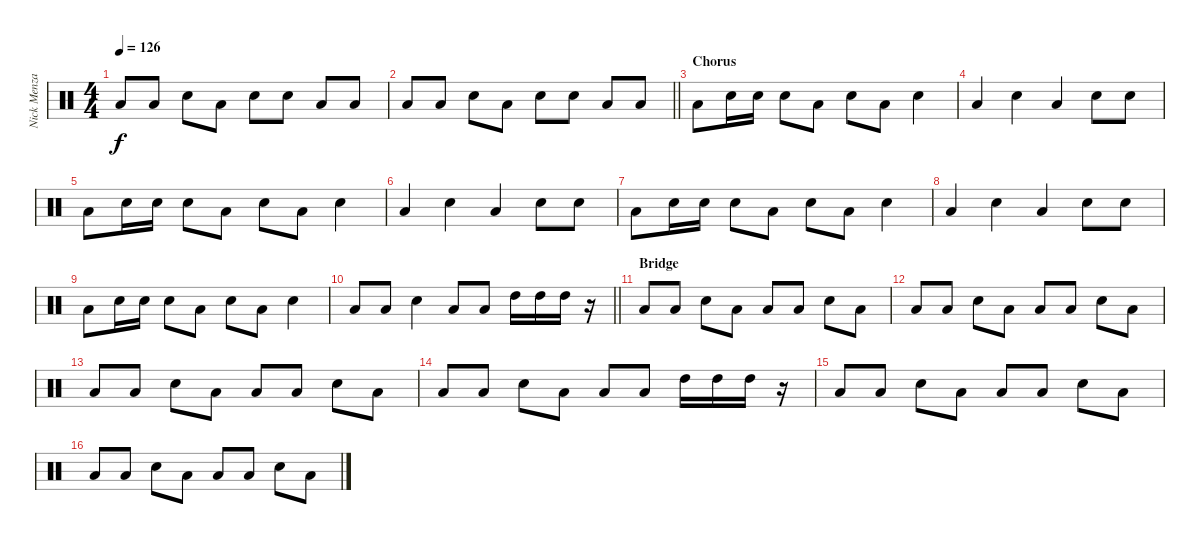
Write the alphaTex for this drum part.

\track ("Nick Menza" "Nick Menza") {instrument percussion}
\staff {score}
\articulation defaults
\ts (4 4)
\tempo 126
\clef neutral
\ks c "Low Tom (hit)".8{dy f} "Low Tom (hit)".8 "Electric Snare (hit)".8 "Low Tom (hit)".8 "Electric Snare (hit)".8 "Electric Snare (hit)".8 "Low Tom (hit)".8 "Low Tom (hit)".8
|
\barLineRight lightlight "Low Tom (hit)".8 "Low Tom (hit)".8 "Electric Snare (hit)".8 "Low Tom (hit)".8 "Electric Snare (hit)".8 "Electric Snare (hit)".8 "Low Tom (hit)".8 "Low Tom (hit)".8
|
\section ("" "Chorus")
"Low Tom (hit)".8 "Electric Snare (hit)".16 "Electric Snare (hit)".16 "Electric Snare (hit)".8 "Low Tom (hit)".8 "Electric Snare (hit)".8 "Low Tom (hit)".8 "Electric Snare (hit)".4 |
"Low Tom (hit)".4 "Electric Snare (hit)".4 "Low Tom (hit)".4 "Electric Snare (hit)".8 "Electric Snare (hit)".8 |
"Low Tom (hit)".8 "Electric Snare (hit)".16 "Electric Snare (hit)".16 "Electric Snare (hit)".8 "Low Tom (hit)".8 "Electric Snare (hit)".8 "Low Tom (hit)".8 "Electric Snare (hit)".4 |
"Low Tom (hit)".4 "Electric Snare (hit)".4 "Low Tom (hit)".4 "Electric Snare (hit)".8 "Electric Snare (hit)".8 |
"Low Tom (hit)".8 "Electric Snare (hit)".16 "Electric Snare (hit)".16 "Electric Snare (hit)".8 "Low Tom (hit)".8 "Electric Snare (hit)".8 "Low Tom (hit)".8 "Electric Snare (hit)".4 |
"Low Tom (hit)".4 "Electric Snare (hit)".4 "Low Tom (hit)".4 "Electric Snare (hit)".8 "Electric Snare (hit)".8 |
"Low Tom (hit)".8 "Electric Snare (hit)".16 "Electric Snare (hit)".16 "Electric Snare (hit)".8 "Low Tom (hit)".8 "Electric Snare (hit)".8 "Low Tom (hit)".8 "Electric Snare (hit)".4 |
\barLineRight lightlight "Low Tom (hit)".8 "Low Tom (hit)".8 "Electric Snare (hit)".4 "Low Tom (hit)".8 "Low Tom (hit)".8 "High Tom (hit)".16 "High Tom (hit)".16 "High Tom (hit)".16
r.16 |
\section ("" "Bridge")
"Low Tom (hit)".8 "Low Tom (hit)".8 "Electric Snare (hit)".8 "Low Tom (hit)".8 "Low Tom (hit)".8 "Low Tom (hit)".8 "Electric Snare (hit)".8 "Low Tom (hit)".8 |
"Low Tom (hit)".8 "Low Tom (hit)".8 "Electric Snare (hit)".8 "Low Tom (hit)".8 "Low Tom (hit)".8 "Low Tom (hit)".8 "Electric Snare (hit)".8 "Low Tom (hit)".8 |
"Low Tom (hit)".8 "Low Tom (hit)".8 "Electric Snare (hit)".8 "Low Tom (hit)".8 "Low Tom (hit)".8 "Low Tom (hit)".8 "Electric Snare (hit)".8 "Low Tom (hit)".8 |
"Low Tom (hit)".8 "Low Tom (hit)".8 "Electric Snare (hit)".8 "Low Tom (hit)".8 "Low Tom (hit)".8 "Low Tom (hit)".8 "High Tom (hit)".16 "High Tom (hit)".16 "High Tom (hit)".16 r.16 |
"Low Tom (hit)".8 "Low Tom (hit)".8 "Electric Snare (hit)".8 "Low Tom (hit)".8 "Low Tom (hit)".8 "Low Tom (hit)".8 "Electric Snare (hit)".8 "Low Tom (hit)".8 |
"Low Tom (hit)".8 "Low Tom (hit)".8 "Electric Snare (hit)".8 "Low Tom (hit)".8 "Low Tom (hit)".8 "Low Tom (hit)".8 "Electric Snare (hit)".8 "Low Tom (hit)".8
